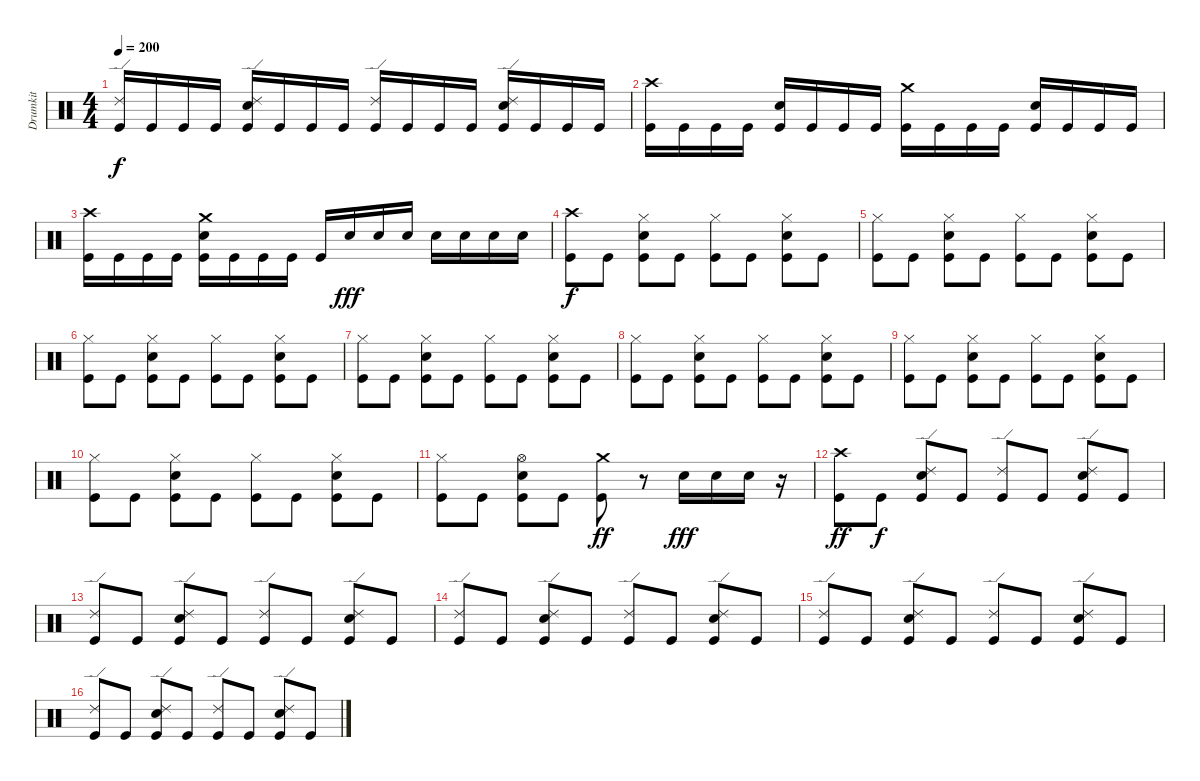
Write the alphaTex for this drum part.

\track ("Drumkit" "Drumkit") {instrument percussion}
\staff {score}
\articulation defaults
\ts (4 4)
\tempo 200
\clef neutral
\ks c
("Ride (edge) 2" "Kick (hit)").16{dy f} "Kick (hit)".16 "Kick (hit)".16 "Kick (hit)".16 ("Ride (edge) 2" "Snare (hit) 2" "Kick (hit)").16 "Kick (hit)".16 "Kick (hit)".16 "Kick (hit)".16 ("Ride (edge) 2" "Kick (hit)").16 "Kick (hit)".16 "Kick (hit)".16 "Kick (hit)".16 ("Ride (edge) 2" "Snare (hit) 2" "Kick (hit)").16 "Kick (hit)".16 "Kick (hit)".16 "Kick (hit)".16 |
("Crash high (hit)" "Kick (hit)").16 "Kick (hit)".16 "Kick (hit)".16 "Kick (hit)".16 ("Snare (hit) 2" "Kick (hit)").16 "Kick (hit)".16 "Kick (hit)".16 "Kick (hit)".16 ("Crash medium (hit)" "Kick (hit)").16 "Kick (hit)".16 "Kick (hit)".16 "Kick (hit)".16 ("Snare (hit) 2" "Kick (hit)").16 "Kick (hit)".16 "Kick (hit)".16 "Kick (hit)".16 |
("Crash high (hit)" "Kick (hit)").16 "Kick (hit)".16 "Kick (hit)".16 "Kick (hit)".16 ("Crash medium (hit)" "Snare (hit) 2" "Kick (hit)").16 "Kick (hit)".16 "Kick (hit)".16 "Kick (hit)".16 "Kick (hit)".16 "Snare (hit) 2".16{dy fff} "Snare (hit) 2".16 "Snare (hit) 2".16 "Snare (hit) 2".16 "Snare (hit) 2".16 "Snare (hit) 2".16 "Snare (hit) 2".16 |
("Crash high (hit)" "Kick (hit)").8{dy f} "Kick (hit)".8 ("Hi-Hat (closed)" "Snare (hit) 2" "Kick (hit)").8 "Kick (hit)".8 ("Hi-Hat (closed)" "Kick (hit)").8 "Kick (hit)".8 ("Hi-Hat (closed)" "Snare (hit) 2" "Kick (hit)").8 "Kick (hit)".8 |
("Hi-Hat (closed)" "Kick (hit)").8 "Kick (hit)".8 ("Hi-Hat (closed)" "Snare (hit) 2" "Kick (hit)").8 "Kick (hit)".8 ("Hi-Hat (closed)" "Kick (hit)").8 "Kick (hit)".8 ("Hi-Hat (closed)" "Snare (hit) 2" "Kick (hit)").8 "Kick (hit)".8 |
("Hi-Hat (closed)" "Kick (hit)").8 "Kick (hit)".8 ("Hi-Hat (closed)" "Snare (hit) 2" "Kick (hit)").8 "Kick (hit)".8 ("Hi-Hat (closed)" "Kick (hit)").8 "Kick (hit)".8 ("Hi-Hat (closed)" "Snare (hit) 2" "Kick (hit)").8 "Kick (hit)".8 |
("Hi-Hat (closed)" "Kick (hit)").8 "Kick (hit)".8 ("Hi-Hat (closed)" "Snare (hit) 2" "Kick (hit)").8 "Kick (hit)".8 ("Hi-Hat (closed)" "Kick (hit)").8 "Kick (hit)".8 ("Hi-Hat (closed)" "Snare (hit) 2" "Kick (hit)").8 "Kick (hit)".8 |
("Hi-Hat (closed)" "Kick (hit)").8 "Kick (hit)".8 ("Hi-Hat (closed)" "Snare (hit) 2" "Kick (hit)").8 "Kick (hit)".8 ("Hi-Hat (closed)" "Kick (hit)").8 "Kick (hit)".8 ("Hi-Hat (closed)" "Snare (hit) 2" "Kick (hit)").8 "Kick (hit)".8 |
("Hi-Hat (closed)" "Kick (hit)").8 "Kick (hit)".8 ("Hi-Hat (closed)" "Snare (hit) 2" "Kick (hit)").8 "Kick (hit)".8 ("Hi-Hat (closed)" "Kick (hit)").8 "Kick (hit)".8 ("Hi-Hat (closed)" "Snare (hit) 2" "Kick (hit)").8 "Kick (hit)".8 |
("Hi-Hat (closed)" "Kick (hit)").8 "Kick (hit)".8 ("Hi-Hat (closed)" "Snare (hit) 2" "Kick (hit)").8 "Kick (hit)".8 ("Hi-Hat (closed)" "Kick (hit)").8 "Kick (hit)".8 ("Hi-Hat (closed)" "Snare (hit) 2" "Kick (hit)").8 "Kick (hit)".8 |
("Hi-Hat (closed)" "Kick (hit)").8 "Kick (hit)".8 ("Hi-Hat (open)" "Snare (hit) 2" "Kick (hit)").8 "Kick (hit)".8 ("Crash medium (hit)" "Kick (hit)").8{dy ff} r.8 "Snare (hit) 2".16{dy fff} "Snare (hit) 2".16 "Snare (hit) 2".16 r.16 |
("Crash high (hit)" "Kick (hit)").8{dy ff} "Kick (hit)".8{dy f} ("Ride (edge) 2" "Snare (hit) 2" "Kick (hit)").8 "Kick (hit)".8 ("Ride (edge) 2" "Kick (hit)").8 "Kick (hit)".8 ("Ride (edge) 2" "Snare (hit) 2" "Kick (hit)").8 "Kick (hit)".8 |
("Ride (edge) 2" "Kick (hit)").8 "Kick (hit)".8 ("Ride (edge) 2" "Snare (hit) 2" "Kick (hit)").8 "Kick (hit)".8 ("Ride (edge) 2" "Kick (hit)").8 "Kick (hit)".8 ("Ride (edge) 2" "Snare (hit) 2" "Kick (hit)").8 "Kick (hit)".8 |
("Ride (edge) 2" "Kick (hit)").8 "Kick (hit)".8 ("Ride (edge) 2" "Snare (hit) 2" "Kick (hit)").8 "Kick (hit)".8 ("Ride (edge) 2" "Kick (hit)").8 "Kick (hit)".8 ("Ride (edge) 2" "Snare (hit) 2" "Kick (hit)").8 "Kick (hit)".8 |
("Ride (edge) 2" "Kick (hit)").8 "Kick (hit)".8 ("Ride (edge) 2" "Snare (hit) 2" "Kick (hit)").8 "Kick (hit)".8 ("Ride (edge) 2" "Kick (hit)").8 "Kick (hit)".8 ("Ride (edge) 2" "Snare (hit) 2" "Kick (hit)").8 "Kick (hit)".8 |
("Ride (edge) 2" "Kick (hit)").8 "Kick (hit)".8 ("Ride (edge) 2" "Snare (hit) 2" "Kick (hit)").8 "Kick (hit)".8 ("Ride (edge) 2" "Kick (hit)").8 "Kick (hit)".8 ("Ride (edge) 2" "Snare (hit) 2" "Kick (hit)").8 "Kick (hit)".8
